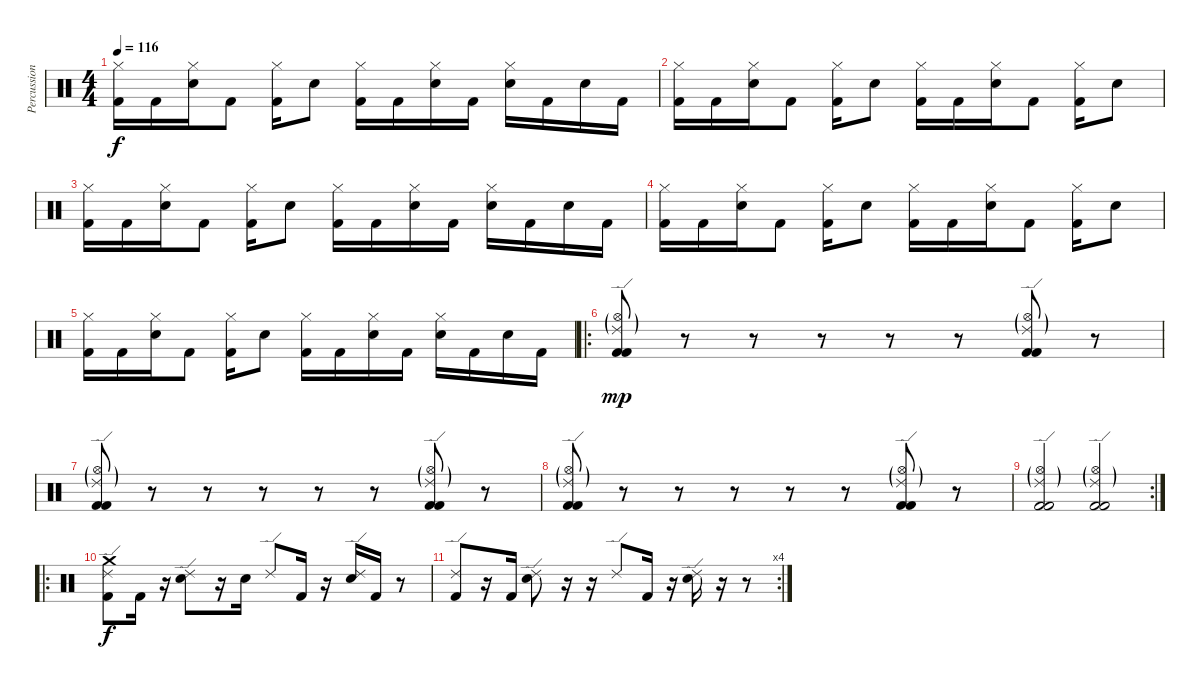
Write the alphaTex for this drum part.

\track ("Percussion" "Percussion") {instrument percussion}
\staff {score}
\articulation defaults
\ts (4 4)
\tempo 116
\clef neutral
\ks c
("Hi-Hat (closed)" "Kick (hit) 2").16{dy f} "Kick (hit) 2".16 ("Hi-Hat (closed)" "Electric Snare (hit)").16 "Kick (hit) 2".8 ("Hi-Hat (closed)" "Kick (hit) 2").16 "Electric Snare (hit)".8 ("Hi-Hat (closed)" "Kick (hit) 2").16 "Kick (hit) 2".16 ("Hi-Hat (closed)" "Electric Snare (hit)").16 "Kick (hit) 2".16 ("Hi-Hat (closed)" "Electric Snare (hit)").16 "Kick (hit) 2".16 "Electric Snare (hit)".16 "Kick (hit) 2".16 |
("Hi-Hat (closed)" "Kick (hit) 2").16 "Kick (hit) 2".16 ("Hi-Hat (closed)" "Electric Snare (hit)").16 "Kick (hit) 2".8 ("Hi-Hat (closed)" "Kick (hit) 2").16 "Electric Snare (hit)".8 ("Hi-Hat (closed)" "Kick (hit) 2").16 "Kick (hit) 2".16 ("Hi-Hat (closed)" "Electric Snare (hit)").16 "Kick (hit) 2".8 ("Hi-Hat (closed)" "Kick (hit) 2").16 "Electric Snare (hit)".8 |
("Hi-Hat (closed)" "Kick (hit) 2").16 "Kick (hit) 2".16 ("Hi-Hat (closed)" "Electric Snare (hit)").16 "Kick (hit) 2".8 ("Hi-Hat (closed)" "Kick (hit) 2").16 "Electric Snare (hit)".8 ("Hi-Hat (closed)" "Kick (hit) 2").16 "Kick (hit) 2".16 ("Hi-Hat (closed)" "Electric Snare (hit)").16 "Kick (hit) 2".16 ("Hi-Hat (closed)" "Electric Snare (hit)").16 "Kick (hit) 2".16 "Electric Snare (hit)".16 "Kick (hit) 2".16 |
("Hi-Hat (closed)" "Kick (hit) 2").16 "Kick (hit) 2".16 ("Hi-Hat (closed)" "Electric Snare (hit)").16 "Kick (hit) 2".8 ("Hi-Hat (closed)" "Kick (hit) 2").16 "Electric Snare (hit)".8 ("Hi-Hat (closed)" "Kick (hit) 2").16 "Kick (hit) 2".16 ("Hi-Hat (closed)" "Electric Snare (hit)").16 "Kick (hit) 2".8 ("Hi-Hat (closed)" "Kick (hit) 2").16 "Electric Snare (hit)".8 |
("Hi-Hat (closed)" "Kick (hit) 2").16 "Kick (hit) 2".16 ("Hi-Hat (closed)" "Electric Snare (hit)").16 "Kick (hit) 2".8 ("Hi-Hat (closed)" "Kick (hit) 2").16 "Electric Snare (hit)".8 ("Hi-Hat (closed)" "Kick (hit) 2").16 "Kick (hit) 2".16 ("Hi-Hat (closed)" "Electric Snare (hit)").16 "Kick (hit) 2".16 ("Hi-Hat (closed)" "Electric Snare (hit)").16 "Kick (hit) 2".16 "Electric Snare (hit)".16 "Kick (hit) 2".16 |
\ro
("Hi-Hat (open)"{g} "Ride (edge) 2"{g} "Kick (hit) 2" "Kick (hit) 2").8{dy mp} r.8 r.8 r.8 r.8 r.8 ("Hi-Hat (open)"{g} "Ride (edge) 2"{g} "Kick (hit) 2" "Kick (hit) 2").8 r.8 |
("Hi-Hat (open)"{g} "Ride (edge) 2"{g} "Kick (hit) 2" "Kick (hit) 2").8 r.8 r.8 r.8 r.8 r.8 ("Hi-Hat (open)"{g} "Ride (edge) 2"{g} "Kick (hit) 2" "Kick (hit) 2").8 r.8 |
("Hi-Hat (open)"{g} "Ride (edge) 2"{g} "Kick (hit) 2" "Kick (hit) 2").8 r.8 r.8 r.8 r.8 r.8 ("Hi-Hat (open)"{g} "Ride (edge) 2"{g} "Kick (hit) 2" "Kick (hit) 2").8 r.8 |
\rc 2
("Hi-Hat (open)"{g} "Ride (edge) 2"{g} "Kick (hit) 2" "Kick (hit) 2").2 ("Hi-Hat (open)"{g} "Ride (edge) 2"{g} "Kick (hit) 2" "Kick (hit) 2").2 |
\ro
("Crash medium (hit)" "Ride (edge) 2" "Kick (hit) 2").8{dy f} "Kick (hit) 2".16 r.16 ("Ride (edge) 2" "Electric Snare (hit)").8 r.16 "Electric Snare (hit)".16 "Ride (edge) 2".8 "Kick (hit) 2".16 r.16 ("Ride (edge) 2" "Electric Snare (hit)").16 "Kick (hit) 2".16 r.8 |
\rc 4
("Ride (edge) 2" "Kick (hit) 2").8 r.16 "Kick (hit) 2".16 ("Ride (edge) 2" "Electric Snare (hit)").8 r.16 r.16 "Ride (edge) 2".8 "Kick (hit) 2".16 r.16 ("Ride (edge) 2" "Electric Snare (hit)").16 r.16 r.8
